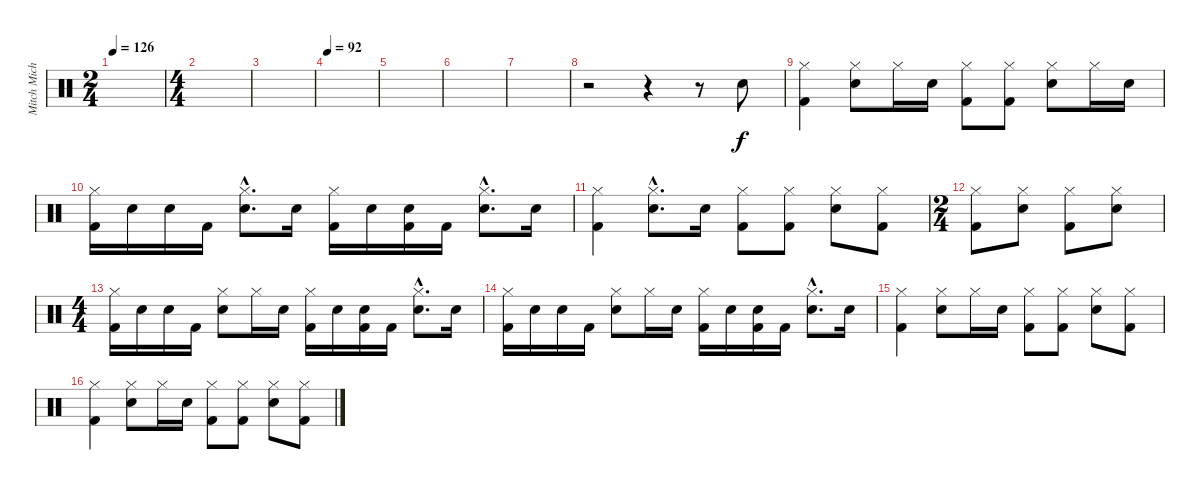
\track ("Mitch Michell" "Mitch Mich") {instrument percussion}
\staff {score}
\articulation defaults
\ts (2 4)
\tempo 126
\clef neutral
\ks c
|
\ts (4 4)
|
|
\tempo 92
|
|
|
|
r.2 r.4 r.8 "Snare (hit) 2".8 |
("Hi-Hat (closed)" "Kick (hit) 2").4 ("Hi-Hat (closed)" "Snare (hit) 2").8 "Hi-Hat (closed)".16 "Snare (hit) 2".16 ("Hi-Hat (closed)" "Kick (hit) 2").8 ("Hi-Hat (closed)" "Kick (hit) 2").8 ("Hi-Hat (closed)" "Snare (hit) 2").8 "Hi-Hat (closed)".16 "Snare (hit) 2".16 |
("Hi-Hat (closed)" "Kick (hit) 2").16 "Snare (hit) 2".16 "Snare (hit) 2".16 "Kick (hit) 2".16 ("Hi-Hat (closed)"{hac} "Snare (hit) 2"{hac}).8{d} "Snare (hit) 2".16 ("Hi-Hat (closed)" "Kick (hit) 2").16 "Snare (hit) 2".16 ("Snare (hit) 2" "Kick (hit) 2").16 "Kick (hit) 2".16 ("Hi-Hat (closed)"{hac} "Snare (hit) 2"{hac}).8{d} "Snare (hit) 2".16 |
("Hi-Hat (closed)" "Kick (hit) 2").4 ("Hi-Hat (closed)"{hac} "Snare (hit) 2"{hac}).8{d} "Snare (hit) 2".16 ("Hi-Hat (closed)" "Kick (hit) 2").8 ("Hi-Hat (closed)" "Kick (hit) 2").8 ("Hi-Hat (closed)" "Snare (hit) 2").8 ("Hi-Hat (closed)" "Kick (hit) 2").8 |
\ts (2 4)
("Hi-Hat (closed)" "Kick (hit) 2").8 ("Hi-Hat (closed)" "Snare (hit) 2").8 ("Hi-Hat (closed)" "Kick (hit) 2").8 ("Hi-Hat (closed)" "Snare (hit) 2").8 |
\ts (4 4)
("Hi-Hat (closed)" "Kick (hit) 2").16 "Snare (hit) 2".16 "Snare (hit) 2".16 "Kick (hit) 2".16 ("Hi-Hat (closed)" "Snare (hit) 2").8 "Hi-Hat (closed)".16 "Snare (hit) 2".16 ("Hi-Hat (closed)" "Kick (hit) 2").16 "Snare (hit) 2".16 ("Snare (hit) 2" "Kick (hit) 2").16 "Kick (hit) 2".16 ("Hi-Hat (closed)"{hac} "Snare (hit) 2"{hac}).8{d} "Snare (hit) 2".16 |
("Hi-Hat (closed)" "Kick (hit) 2").16 "Snare (hit) 2".16 "Snare (hit) 2".16 "Kick (hit) 2".16 ("Hi-Hat (closed)" "Snare (hit) 2").8 "Hi-Hat (closed)".16 "Snare (hit) 2".16 ("Hi-Hat (closed)" "Kick (hit) 2").16 "Snare (hit) 2".16 ("Snare (hit) 2" "Kick (hit) 2").16 "Kick (hit) 2".16 ("Hi-Hat (closed)"{hac} "Snare (hit) 2"{hac}).8{d} "Snare (hit) 2".16 |
("Hi-Hat (closed)" "Kick (hit) 2").4 ("Hi-Hat (closed)" "Snare (hit) 2").8 "Hi-Hat (closed)".16 "Snare (hit) 2".16 ("Hi-Hat (closed)" "Kick (hit) 2").8 ("Hi-Hat (closed)" "Kick (hit) 2").8 ("Hi-Hat (closed)" "Snare (hit) 2").8 ("Hi-Hat (closed)" "Kick (hit) 2").8 |
("Hi-Hat (closed)" "Kick (hit) 2").4 ("Hi-Hat (closed)" "Snare (hit) 2").8 "Hi-Hat (closed)".16 "Snare (hit) 2".16 ("Hi-Hat (closed)" "Kick (hit) 2").8 ("Hi-Hat (closed)" "Kick (hit) 2").8 ("Hi-Hat (closed)" "Snare (hit) 2").8 ("Hi-Hat (closed)" "Kick (hit) 2").8
